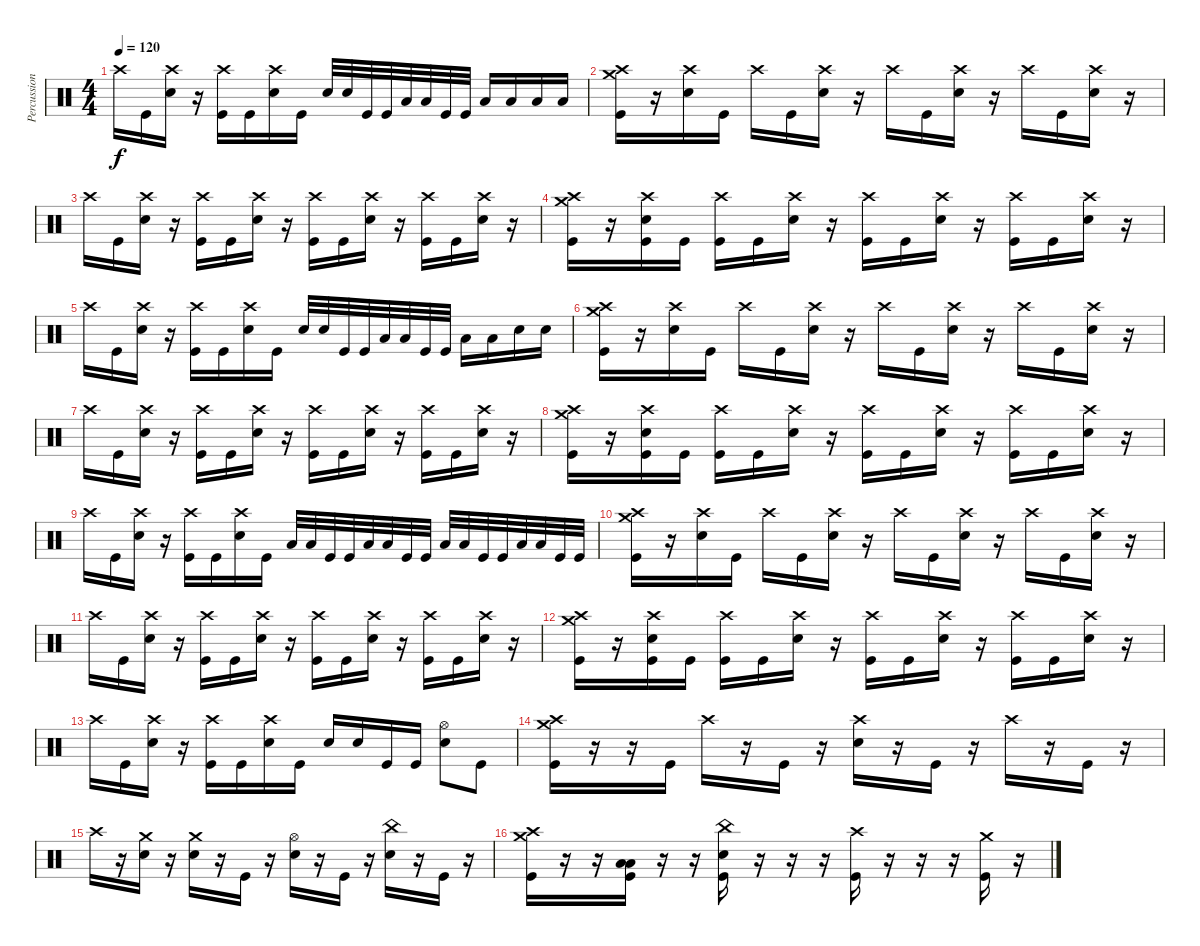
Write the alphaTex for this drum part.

\track ("Percussion" "Percussion") {instrument percussion}
\staff {score}
\articulation defaults
\ts (4 4)
\tempo 120
\clef neutral
\ks c "Crash high (hit)".16{dy f} "Kick (hit)".16
("Crash high (hit)" "Snare (hit) 2").16 r.16 ("Crash high (hit)" "Kick (hit)").16 "Kick (hit)".16 ("Crash high (hit)" "Snare (hit) 2").16 "Kick (hit)".16 "Snare (hit) 2".32 "Snare (hit) 2".32 "Kick (hit)".32 "Kick (hit)".32 "Low Tom (hit)".32 "Low Tom (hit)".32 "Kick (hit)".32 "Kick (hit)".32 "Low Floor Tom (hit)".16 "Low Floor Tom (hit)".16 "Low Floor Tom (hit)".16 "Low Floor Tom (hit)".16 |
("Crash medium (hit)" "Crash high (hit)" "Kick (hit)").16 r.16 ("Crash high (hit)" "Snare (hit) 2").16 "Kick (hit)".16 "Crash high (hit)".16 "Kick (hit)".16 ("Crash high (hit)" "Snare (hit) 2").16 r.16 "Crash high (hit)".16 "Kick (hit)".16 ("Crash high (hit)" "Snare (hit) 2").16 r.16 "Crash high (hit)".16 "Kick (hit)".16 ("Crash high (hit)" "Snare (hit) 2").16 r.16 |
"Crash high (hit)".16 "Kick (hit)".16 ("Crash high (hit)" "Snare (hit) 2").16 r.16 ("Crash high (hit)" "Kick (hit)").16 "Kick (hit)".16 ("Crash high (hit)" "Snare (hit) 2").16 r.16 ("Crash high (hit)" "Kick (hit)").16 "Kick (hit)".16 ("Crash high (hit)" "Snare (hit) 2").16 r.16 ("Crash high (hit)" "Kick (hit)").16 "Kick (hit)".16 ("Crash high (hit)" "Snare (hit) 2").16 r.16 |
("Crash medium (hit)" "Crash high (hit)" "Kick (hit)").16 r.16 ("Crash high (hit)" "Snare (hit) 2" "Kick (hit)").16 "Kick (hit)".16 ("Crash high (hit)" "Kick (hit)").16 "Kick (hit)".16 ("Crash high (hit)" "Snare (hit) 2").16 r.16 ("Crash high (hit)" "Kick (hit)").16 "Kick (hit)".16 ("Crash high (hit)" "Snare (hit) 2").16 r.16 ("Crash high (hit)" "Kick (hit)").16 "Kick (hit)".16 ("Crash high (hit)" "Snare (hit) 2").16 r.16 |
"Crash high (hit)".16 "Kick (hit)".16 ("Crash high (hit)" "Snare (hit) 2").16 r.16 ("Crash high (hit)" "Kick (hit)").16 "Kick (hit)".16 ("Crash high (hit)" "Snare (hit) 2").16 "Kick (hit)".16 "Snare (hit) 2".32 "Snare (hit) 2".32 "Kick (hit)".32 "Kick (hit)".32 "Low Tom (hit)".32 "Low Tom (hit)".32 "Kick (hit)".32 "Kick (hit)".32 "Low Tom (hit)".16 "Low Tom (hit)".16 "Snare (hit) 2".16 "Snare (hit) 2".16 |
("Crash medium (hit)" "Crash high (hit)" "Kick (hit)").16 r.16 ("Crash high (hit)" "Snare (hit) 2").16 "Kick (hit)".16 "Crash high (hit)".16 "Kick (hit)".16 ("Crash high (hit)" "Snare (hit) 2").16 r.16 "Crash high (hit)".16 "Kick (hit)".16 ("Crash high (hit)" "Snare (hit) 2").16 r.16 "Crash high (hit)".16 "Kick (hit)".16 ("Crash high (hit)" "Snare (hit) 2").16 r.16 |
"Crash high (hit)".16 "Kick (hit)".16 ("Crash high (hit)" "Snare (hit) 2").16 r.16 ("Crash high (hit)" "Kick (hit)").16 "Kick (hit)".16 ("Crash high (hit)" "Snare (hit) 2").16 r.16 ("Crash high (hit)" "Kick (hit)").16 "Kick (hit)".16 ("Crash high (hit)" "Snare (hit) 2").16 r.16 ("Crash high (hit)" "Kick (hit)").16 "Kick (hit)".16 ("Crash high (hit)" "Snare (hit) 2").16 r.16 |
("Crash medium (hit)" "Crash high (hit)" "Kick (hit)").16 r.16 ("Crash high (hit)" "Snare (hit) 2" "Kick (hit)").16 "Kick (hit)".16 ("Crash high (hit)" "Kick (hit)").16 "Kick (hit)".16 ("Crash high (hit)" "Snare (hit) 2").16 r.16 ("Crash high (hit)" "Kick (hit)").16 "Kick (hit)".16 ("Crash high (hit)" "Snare (hit) 2").16 r.16 ("Crash high (hit)" "Kick (hit)").16 "Kick (hit)".16 ("Crash high (hit)" "Snare (hit) 2").16 r.16 |
"Crash high (hit)".16 "Kick (hit)".16 ("Crash high (hit)" "Snare (hit) 2").16 r.16 ("Crash high (hit)" "Kick (hit)").16 "Kick (hit)".16 ("Crash high (hit)" "Snare (hit) 2").16 "Kick (hit)".16 "Low Tom (hit)".32 "Low Tom (hit)".32 "Kick (hit)".32 "Kick (hit)".32 "Low Floor Tom (hit)".32 "Low Floor Tom (hit)".32 "Kick (hit)".32 "Kick (hit)".32 "Low Tom (hit)".32 "Low Tom (hit)".32 "Kick (hit)".32 "Kick (hit)".32 "Low Floor Tom (hit)".32 "Low Floor Tom (hit)".32 "Kick (hit)".32 "Kick (hit)".32 |
("Crash medium (hit)" "Crash high (hit)" "Kick (hit)").16 r.16 ("Crash high (hit)" "Snare (hit) 2").16 "Kick (hit)".16 "Crash high (hit)".16 "Kick (hit)".16 ("Crash high (hit)" "Snare (hit) 2").16 r.16 "Crash high (hit)".16 "Kick (hit)".16 ("Crash high (hit)" "Snare (hit) 2").16 r.16 "Crash high (hit)".16 "Kick (hit)".16 ("Crash high (hit)" "Snare (hit) 2").16 r.16 |
"Crash high (hit)".16 "Kick (hit)".16 ("Crash high (hit)" "Snare (hit) 2").16 r.16 ("Crash high (hit)" "Kick (hit)").16 "Kick (hit)".16 ("Crash high (hit)" "Snare (hit) 2").16 r.16 ("Crash high (hit)" "Kick (hit)").16 "Kick (hit)".16 ("Crash high (hit)" "Snare (hit) 2").16 r.16 ("Crash high (hit)" "Kick (hit)").16 "Kick (hit)".16 ("Crash high (hit)" "Snare (hit) 2").16 r.16 |
("Crash medium (hit)" "Crash high (hit)" "Kick (hit)").16 r.16 ("Crash high (hit)" "Snare (hit) 2" "Kick (hit)").16 "Kick (hit)".16 ("Crash high (hit)" "Kick (hit)").16 "Kick (hit)".16 ("Crash high (hit)" "Snare (hit) 2").16 r.16 ("Crash high (hit)" "Kick (hit)").16 "Kick (hit)".16 ("Crash high (hit)" "Snare (hit) 2").16 r.16 ("Crash high (hit)" "Kick (hit)").16 "Kick (hit)".16 ("Crash high (hit)" "Snare (hit) 2").16 r.16 |
"Crash high (hit)".16 "Kick (hit)".16 ("Crash high (hit)" "Snare (hit) 2").16 r.16 ("Crash high (hit)" "Kick (hit)").16 "Kick (hit)".16 ("Crash high (hit)" "Snare (hit) 2").16 "Kick (hit)".16 "Snare (hit) 2".16 "Snare (hit) 2".16 "Kick (hit)".16 "Kick (hit)".16 ("Hi-Hat (open)" "Snare (hit) 2").8 "Kick (hit)".8 |
("Crash medium (hit)" "Crash high (hit)" "Kick (hit)").16 r.16 r.16 "Kick (hit)".16 "Crash high (hit)".16 r.16 "Kick (hit)".16 r.16 ("Crash high (hit)" "Snare (hit) 2").16 r.16 "Kick (hit)".16 r.16 "Crash high (hit)".16 r.16 "Kick (hit)".16 r.16 |
"Crash high (hit)".16 r.16 ("Crash medium (hit)" "Snare (hit) 2").16 r.16 ("Crash medium (hit)" "Snare (hit) 2").16 r.16 "Kick (hit)".16 r.16 ("Hi-Hat (open)" "Snare (hit) 2").16 r.16 "Kick (hit)".16 r.16 ("China (hit)" "Snare (hit) 2").16 r.16 "Kick (hit)".16 r.16 |
("Crash medium (hit)" "Crash high (hit)" "Kick (hit)").16 r.16 r.16 ("Low Tom (hit)" "Low Floor Tom (hit)" "Kick (hit)").16 r.16 r.16 ("China (hit)" "Snare (hit) 2" "Kick (hit)").16 r.16 r.16 r.16 ("Crash high (hit)" "Kick (hit)").16 r.16 r.16 r.16 ("Crash medium (hit)" "Kick (hit)").16 r.16
